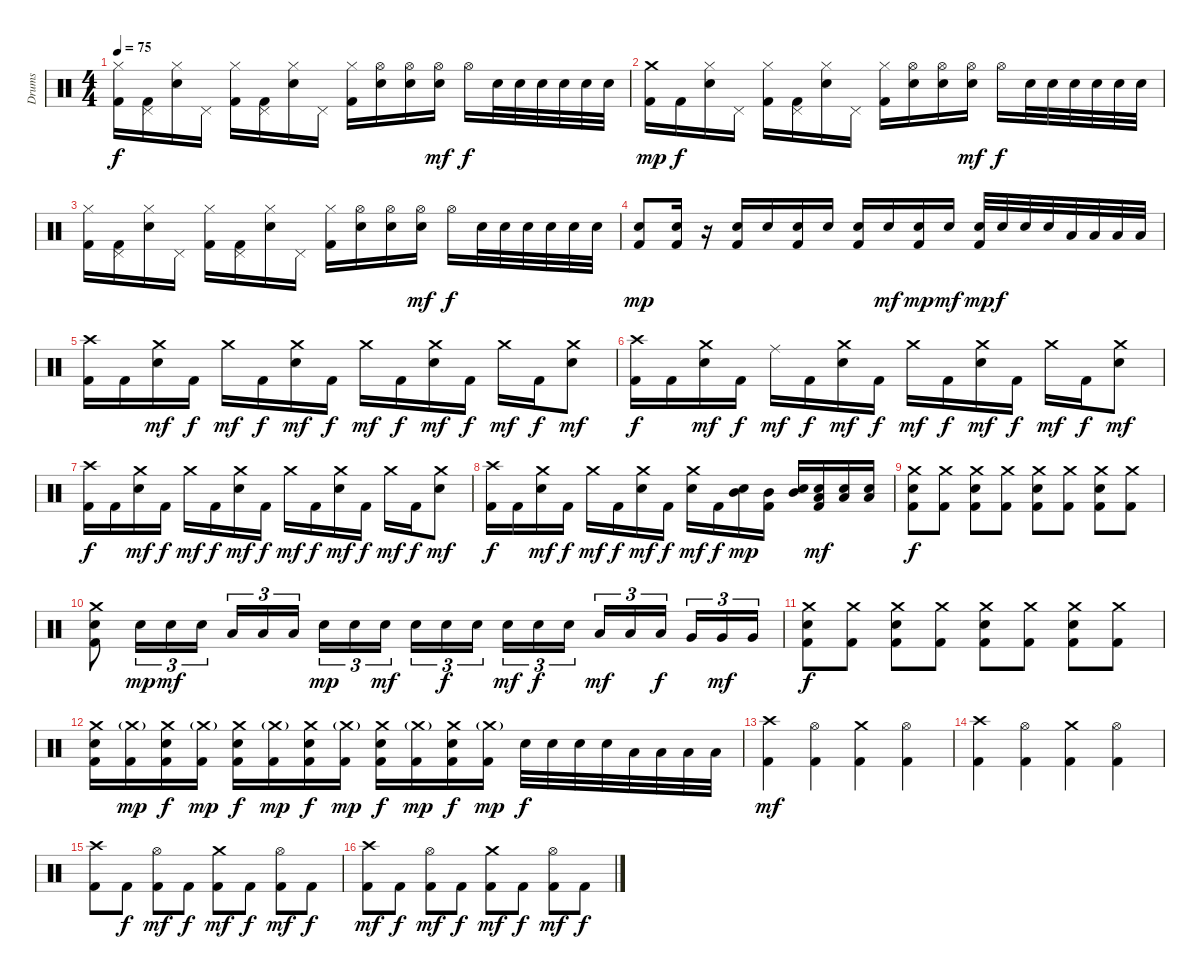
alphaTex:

\track ("Drums" "Drums") {instrument percussion}
\staff {score}
\articulation defaults
\ts (4 4)
\tempo 75
\clef neutral
\ks c
("Hi-Hat (closed)" "Kick (hit) 2").16{dy f} ("Pedal Hi-Hat (hit)" "Kick (hit) 2").16 ("Hi-Hat (closed)" "Electric Snare (hit)").16 "Pedal Hi-Hat (hit)".16 ("Hi-Hat (closed)" "Kick (hit) 2").16 ("Pedal Hi-Hat (hit)" "Kick (hit) 2").16 ("Hi-Hat (closed)" "Electric Snare (hit)").16 "Pedal Hi-Hat (hit)".16 ("Hi-Hat (closed)" "Kick (hit) 2").16 ("Hi-Hat (open)" "Electric Snare (hit)").16 ("Hi-Hat (open)" "Electric Snare (hit)").16 ("Hi-Hat (open)" "Electric Snare (hit)").16{dy mf} "Hi-Hat (open)".16{dy f} "Electric Snare (hit)".32 "Electric Snare (hit)".32 "Electric Snare (hit)".32 "Electric Snare (hit)".32 "Electric Snare (hit)".32 "Electric Snare (hit)".32 |
("Crash medium (hit)" "Kick (hit) 2").16{dy mp} "Kick (hit) 2".16{dy f} ("Hi-Hat (closed)" "Electric Snare (hit)").16 "Pedal Hi-Hat (hit)".16 ("Hi-Hat (closed)" "Kick (hit) 2").16 ("Pedal Hi-Hat (hit)" "Kick (hit) 2").16 ("Hi-Hat (closed)" "Electric Snare (hit)").16 "Pedal Hi-Hat (hit)".16 ("Hi-Hat (closed)" "Kick (hit) 2").16 ("Hi-Hat (open)" "Electric Snare (hit)").16 ("Hi-Hat (open)" "Electric Snare (hit)").16 ("Hi-Hat (open)" "Electric Snare (hit)").16{dy mf} "Hi-Hat (open)".16{dy f} "Electric Snare (hit)".32 "Electric Snare (hit)".32 "Electric Snare (hit)".32 "Electric Snare (hit)".32 "Electric Snare (hit)".32 "Electric Snare (hit)".32 |
("Hi-Hat (closed)" "Kick (hit) 2").16 ("Pedal Hi-Hat (hit)" "Kick (hit) 2").16 ("Hi-Hat (closed)" "Electric Snare (hit)").16 "Pedal Hi-Hat (hit)".16 ("Hi-Hat (closed)" "Kick (hit) 2").16 ("Pedal Hi-Hat (hit)" "Kick (hit) 2").16 ("Hi-Hat (closed)" "Electric Snare (hit)").16 "Pedal Hi-Hat (hit)".16 ("Hi-Hat (closed)" "Kick (hit) 2").16 ("Hi-Hat (open)" "Electric Snare (hit)").16 ("Hi-Hat (open)" "Electric Snare (hit)").16 ("Hi-Hat (open)" "Electric Snare (hit)").16{dy mf} "Hi-Hat (open)".16{dy f} "Electric Snare (hit)".32 "Electric Snare (hit)".32 "Electric Snare (hit)".32 "Electric Snare (hit)".32 "Electric Snare (hit)".32 "Electric Snare (hit)".32 |
("Electric Snare (hit)" "Kick (hit) 2").8{dy mp} ("Electric Snare (hit)" "Kick (hit) 2").16 r.16 ("Electric Snare (hit)" "Kick (hit) 2").16 "Electric Snare (hit)".16 ("Electric Snare (hit)" "Kick (hit) 2").16 "Electric Snare (hit)".16 ("Electric Snare (hit)" "Kick (hit) 2").16 "Electric Snare (hit)".16{dy mf} ("Electric Snare (hit)" "Kick (hit) 2").16{dy mp} "Electric Snare (hit)".16{dy mf} ("Electric Snare (hit)" "Kick (hit) 2").32{dy mp} "Electric Snare (hit)".32{dy f} "Electric Snare (hit)".32 "Electric Snare (hit)".32 "Low Tom (hit)".32 "Low Tom (hit)".32 "Low Tom (hit)".32 "Low Tom (hit)".32 |
("Crash high (hit)" "Kick (hit) 2").16 "Kick (hit) 2".16 ("Crash medium (hit)" "Electric Snare (hit)").16{dy mf} "Kick (hit) 2".16{dy f} "Crash medium (hit)".16{dy mf} "Kick (hit) 2".16{dy f} ("Crash medium (hit)" "Electric Snare (hit)").16{dy mf} "Kick (hit) 2".16{dy f} "Crash medium (hit)".16{dy mf} "Kick (hit) 2".16{dy f} ("Crash medium (hit)" "Electric Snare (hit)").16{dy mf} "Kick (hit) 2".16{dy f} "Crash medium (hit)".16{dy mf} "Kick (hit) 2".16{dy f} ("Crash medium (hit)" "Electric Snare (hit)").8{dy mf} |
("Crash high (hit)" "Kick (hit) 2").16{dy f} "Kick (hit) 2".16 ("Crash medium (hit)" "Electric Snare (hit)").16{dy mf} "Kick (hit) 2".16{dy f} "Ride (middle)".16{dy mf} "Kick (hit) 2".16{dy f} ("Crash medium (hit)" "Electric Snare (hit)").16{dy mf} "Kick (hit) 2".16{dy f} "Crash medium (hit)".16{dy mf} "Kick (hit) 2".16{dy f} ("Crash medium (hit)" "Electric Snare (hit)").16{dy mf} "Kick (hit) 2".16{dy f} "Crash medium (hit)".16{dy mf} "Kick (hit) 2".16{dy f} ("Crash medium (hit)" "Electric Snare (hit)").8{dy mf} |
("Crash high (hit)" "Kick (hit) 2").16{dy f} "Kick (hit) 2".16 ("Crash medium (hit)" "Electric Snare (hit)").16{dy mf} "Kick (hit) 2".16{dy f} "Crash medium (hit)".16{dy mf} "Kick (hit) 2".16{dy f} ("Crash medium (hit)" "Electric Snare (hit)").16{dy mf} "Kick (hit) 2".16{dy f} "Crash medium (hit)".16{dy mf} "Kick (hit) 2".16{dy f} ("Crash medium (hit)" "Electric Snare (hit)").16{dy mf} "Kick (hit) 2".16{dy f} "Crash medium (hit)".16{dy mf} "Kick (hit) 2".16{dy f} ("Crash medium (hit)" "Electric Snare (hit)").8{dy mf} |
("Crash high (hit)" "Kick (hit) 2").16{dy f} "Kick (hit) 2".16 ("Crash medium (hit)" "Electric Snare (hit)").16{dy mf} "Kick (hit) 2".16{dy f} "Crash medium (hit)".16{dy mf} "Kick (hit) 2".16{dy f} ("Crash medium (hit)" "Electric Snare (hit)").16{dy mf} "Kick (hit) 2".16{dy f} ("Crash medium (hit)" "Electric Snare (hit)").16{dy mf} "Kick (hit) 2".16{dy f} ("Mid Tom (hit)" "Electric Snare (hit)").16{dy mp} ("Mid Tom (hit)" "Kick (hit) 2").16 ("Mid Tom (hit)" "Electric Snare (hit)").16 ("Low Tom (hit)" "Electric Snare (hit)" "Kick (hit) 2").16{dy mf} ("Low Tom (hit)" "Electric Snare (hit)").16 ("Low Tom (hit)" "Electric Snare (hit)").16 |
("Crash medium (hit)" "Electric Snare (hit)" "Kick (hit) 2").8{dy f} ("Crash medium (hit)" "Kick (hit) 2").8 ("Crash medium (hit)" "Electric Snare (hit)" "Kick (hit) 2").8 ("Crash medium (hit)" "Kick (hit) 2").8 ("Crash medium (hit)" "Electric Snare (hit)" "Kick (hit) 2").8 ("Crash medium (hit)" "Kick (hit) 2").8 ("Crash medium (hit)" "Electric Snare (hit)" "Kick (hit) 2").8 ("Crash medium (hit)" "Kick (hit) 2").8 |
("Crash medium (hit)" "Electric Snare (hit)" "Kick (hit) 2").8 "Electric Snare (hit)".16{tu (3 2) dy mp} "Electric Snare (hit)".16{tu (3 2) dy mf} "Electric Snare (hit)".16{tu (3 2)} "Low Tom (hit)".16{tu (3 2)} "Low Tom (hit)".16{tu (3 2)} "Low Tom (hit)".16{tu (3 2)} "Electric Snare (hit)".16{tu (3 2) dy mp} "Electric Snare (hit)".16{tu (3 2)} "Electric Snare (hit)".16{tu (3 2) dy mf} "Electric Snare (hit)".16{tu (3 2)} "Electric Snare (hit)".16{tu (3 2) dy f} "Electric Snare (hit)".16{tu (3 2)} "Electric Snare (hit)".16{tu (3 2) dy mf} "Electric Snare (hit)".16{tu (3 2) dy f} "Electric Snare (hit)".16{tu (3 2)} "Low Tom (hit)".16{tu (3 2) dy mf} "Low Tom (hit)".16{tu (3 2)} "Low Tom (hit)".16{tu (3 2) dy f} "Very Low Tom (hit)".16{tu (3 2)} "Very Low Tom (hit)".16{tu (3 2) dy mf} "Very Low Tom (hit)".16{tu (3 2)} |
("Crash medium (hit)" "Electric Snare (hit)" "Kick (hit) 2").8{dy f} ("Crash medium (hit)" "Kick (hit) 2").8 ("Crash medium (hit)" "Electric Snare (hit)" "Kick (hit) 2").8 ("Crash medium (hit)" "Kick (hit) 2").8 ("Crash medium (hit)" "Electric Snare (hit)" "Kick (hit) 2").8 ("Crash medium (hit)" "Kick (hit) 2").8 ("Crash medium (hit)" "Electric Snare (hit)" "Kick (hit) 2").8 ("Crash medium (hit)" "Kick (hit) 2").8 |
("Crash medium (hit)" "Electric Snare (hit)" "Kick (hit) 2").16 ("Crash medium (hit)"{g} "Kick (hit) 2").16{dy mp} ("Crash medium (hit)" "Electric Snare (hit)" "Kick (hit) 2").16{dy f} ("Crash medium (hit)"{g} "Kick (hit) 2").16{dy mp} ("Crash medium (hit)" "Electric Snare (hit)" "Kick (hit) 2").16{dy f} ("Crash medium (hit)"{g} "Kick (hit) 2").16{dy mp} ("Crash medium (hit)" "Electric Snare (hit)" "Kick (hit) 2").16{dy f} ("Crash medium (hit)"{g} "Kick (hit) 2").16{dy mp} ("Crash medium (hit)" "Electric Snare (hit)" "Kick (hit) 2").16{dy f} ("Crash medium (hit)"{g} "Kick (hit) 2").16{dy mp} ("Crash medium (hit)" "Electric Snare (hit)" "Kick (hit) 2").16{dy f} ("Crash medium (hit)"{g} "Kick (hit) 2").16{dy mp} "Electric Snare (hit)".32{dy f} "Electric Snare (hit)".32 "Electric Snare (hit)".32 "Electric Snare (hit)".32 "Low Tom (hit)".32 "Low Tom (hit)".32 "Low Tom (hit)".32 "Low Tom (hit)".32 |
("Crash high (hit)" "Kick (hit) 2").4{dy mf} ("Hi-Hat (open)" "Kick (hit) 2").4 ("Crash medium (hit)" "Kick (hit) 2").4 ("Hi-Hat (open)" "Kick (hit) 2").4 |
("Crash high (hit)" "Kick (hit) 2").4 ("Hi-Hat (open)" "Kick (hit) 2").4 ("Crash medium (hit)" "Kick (hit) 2").4 ("Hi-Hat (open)" "Kick (hit) 2").4 |
("Crash high (hit)" "Kick (hit) 2").8 "Kick (hit) 2".8{dy f} ("Hi-Hat (open)" "Kick (hit) 2").8{dy mf} "Kick (hit) 2".8{dy f} ("Crash medium (hit)" "Kick (hit) 2").8{dy mf} "Kick (hit) 2".8{dy f} ("Hi-Hat (open)" "Kick (hit) 2").8{dy mf} "Kick (hit) 2".8{dy f} |
("Crash high (hit)" "Kick (hit) 2").8{dy mf} "Kick (hit) 2".8{dy f} ("Hi-Hat (open)" "Kick (hit) 2").8{dy mf} "Kick (hit) 2".8{dy f} ("Crash medium (hit)" "Kick (hit) 2").8{dy mf} "Kick (hit) 2".8{dy f} ("Hi-Hat (open)" "Kick (hit) 2").8{dy mf} "Kick (hit) 2".8{dy f}
